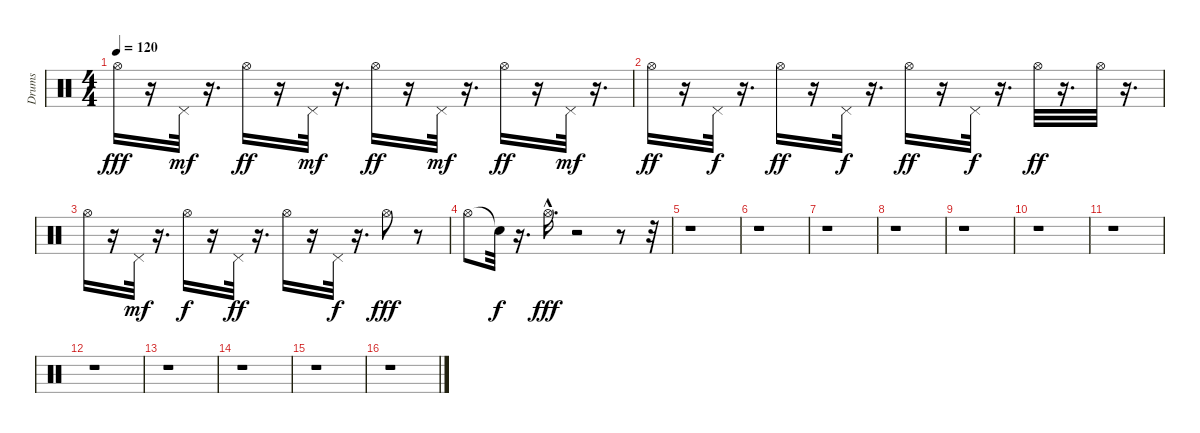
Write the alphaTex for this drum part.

\track ("Drums" "Drums") {instrument percussion}
\staff {score}
\articulation defaults
\ts (4 4)
\tempo 120
\clef neutral
\ks c "Hi-Hat (open)".16{dy fff}
r.16 "Pedal Hi-Hat (hit)".32{dy mf} r.16{d} "Hi-Hat (open)".16{dy ff} r.16 "Pedal Hi-Hat (hit)".32{dy mf} r.16{d} "Hi-Hat (open)".16{dy ff} r.16 "Pedal Hi-Hat (hit)".32{dy mf} r.16{d} "Hi-Hat (open)".16{dy ff} r.16 "Pedal Hi-Hat (hit)".32{dy mf} r.16{d} |
"Hi-Hat (open)".16{dy ff} r.16 "Pedal Hi-Hat (hit)".32{dy f} r.16{d} "Hi-Hat (open)".16{dy ff} r.16 "Pedal Hi-Hat (hit)".32{dy f} r.16{d} "Hi-Hat (open)".16{dy ff} r.16 "Pedal Hi-Hat (hit)".32{dy f} r.16{d} "Hi-Hat (open)".32{dy ff} r.16{d} "Hi-Hat (open)".32 r.16{d} |
"Hi-Hat (open)".16 r.16 "Pedal Hi-Hat (hit)".32{dy mf} r.16{d} "Hi-Hat (open)".16{dy f} r.16 "Pedal Hi-Hat (hit)".32{dy ff} r.16{d} "Hi-Hat (open)".16 r.16 "Pedal Hi-Hat (hit)".32{dy f} r.16{d} "Hi-Hat (open)".8{dy fff} r.8 |
"Hi-Hat (open)".8 "Snare (hit)"{t}.32{dy f} r.16{d} "Hi-Hat (open)"{hac}.16{d dy fff} r.2 r.8 r.32 |
r.1 |
r.1 |
r.1 |
r.1 |
r.1 |
r.1 |
r.1 |
r.1 |
r.1 |
r.1 |
r.1 |
r.1
